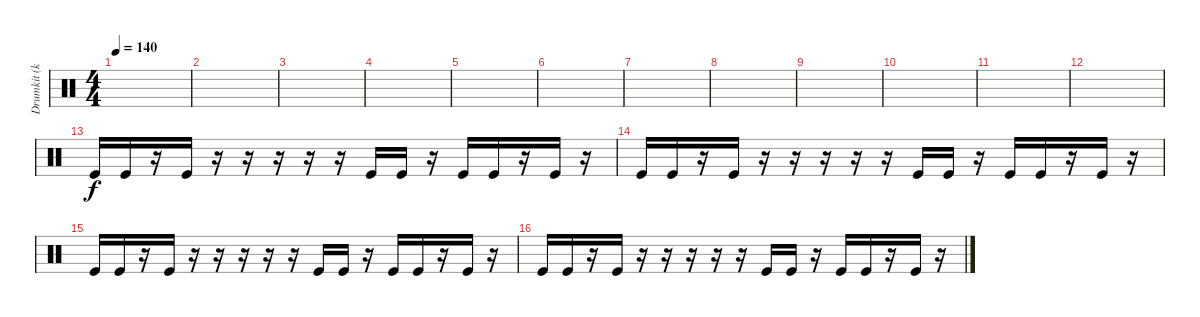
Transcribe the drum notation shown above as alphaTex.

\track ("Drumkit (kicks)" "Drumkit (k") {instrument percussion}
\staff {score}
\articulation defaults
\ts (4 4)
\tempo 140
\clef neutral
\ks c
|
|
|
|
|
|
|
|
|
|
|
|
"Kick (hit)".16 "Kick (hit)".16 r.16 "Kick (hit)".16 r.16 r.16 r.16 r.16 r.16 "Kick (hit)".16 "Kick (hit)".16 r.16 "Kick (hit)".16 "Kick (hit)".16 r.16 "Kick (hit)".16 r.16 |
"Kick (hit)".16 "Kick (hit)".16 r.16 "Kick (hit)".16 r.16 r.16 r.16 r.16 r.16 "Kick (hit)".16 "Kick (hit)".16 r.16 "Kick (hit)".16 "Kick (hit)".16 r.16 "Kick (hit)".16 r.16 |
"Kick (hit)".16 "Kick (hit)".16 r.16 "Kick (hit)".16 r.16 r.16 r.16 r.16 r.16 "Kick (hit)".16 "Kick (hit)".16 r.16 "Kick (hit)".16 "Kick (hit)".16 r.16 "Kick (hit)".16 r.16 |
"Kick (hit)".16 "Kick (hit)".16 r.16 "Kick (hit)".16 r.16 r.16 r.16 r.16 r.16 "Kick (hit)".16 "Kick (hit)".16 r.16 "Kick (hit)".16 "Kick (hit)".16 r.16 "Kick (hit)".16 r.16
